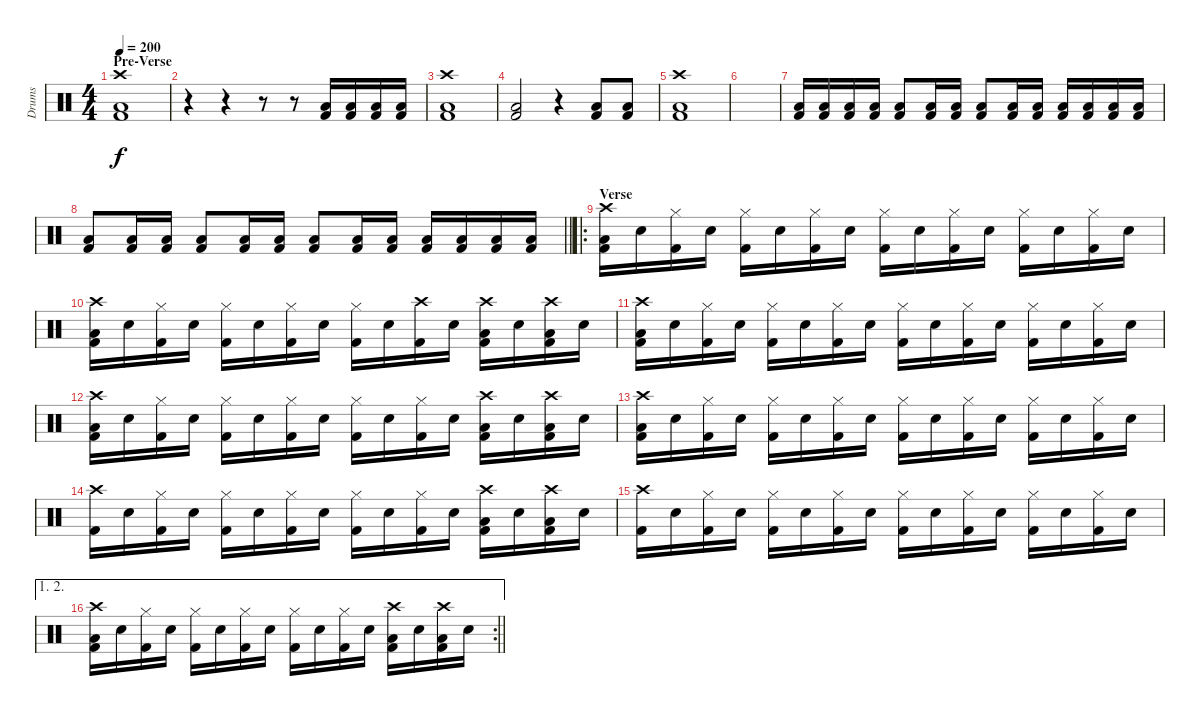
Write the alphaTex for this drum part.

\track ("Drums" "Drums") {instrument percussion}
\staff {score}
\articulation defaults
\ts (4 4)
\section ("" "Pre-Verse")
\tempo 200
\clef neutral
\ks c
("Crash high (hit)" "Low Floor Tom (hit)" "Kick (hit) 2").1{dy f} |
r.4 r.4 r.8 r.8 ("Low Floor Tom (hit)" "Kick (hit) 2").16 ("Low Floor Tom (hit)" "Kick (hit) 2").16 ("Low Floor Tom (hit)" "Kick (hit) 2").16 ("Low Floor Tom (hit)" "Kick (hit) 2").16 |
("Crash high (hit)" "Low Floor Tom (hit)" "Kick (hit) 2").1 |
("Low Floor Tom (hit)" "Kick (hit) 2").2 r.4 ("Low Floor Tom (hit)" "Kick (hit) 2").8 ("Low Floor Tom (hit)" "Kick (hit) 2").8 |
("Crash high (hit)" "Low Floor Tom (hit)" "Kick (hit) 2").1 |
|
("Low Floor Tom (hit)" "Kick (hit) 2").16 ("Low Floor Tom (hit)" "Kick (hit) 2").16 ("Low Floor Tom (hit)" "Kick (hit) 2").16 ("Low Floor Tom (hit)" "Kick (hit) 2").16 ("Low Floor Tom (hit)" "Kick (hit) 2").8 ("Low Floor Tom (hit)" "Kick (hit) 2").16 ("Low Floor Tom (hit)" "Kick (hit) 2").16 ("Low Floor Tom (hit)" "Kick (hit) 2").8 ("Low Floor Tom (hit)" "Kick (hit) 2").16 ("Low Floor Tom (hit)" "Kick (hit) 2").16 ("Low Floor Tom (hit)" "Kick (hit) 2").16 ("Low Floor Tom (hit)" "Kick (hit) 2").16 ("Low Floor Tom (hit)" "Kick (hit) 2").16 ("Low Floor Tom (hit)" "Kick (hit) 2").16 |
\barLineRight lightlight
("Low Floor Tom (hit)" "Kick (hit) 2").8 ("Low Floor Tom (hit)" "Kick (hit) 2").16 ("Low Floor Tom (hit)" "Kick (hit) 2").16 ("Low Floor Tom (hit)" "Kick (hit) 2").8 ("Low Floor Tom (hit)" "Kick (hit) 2").16 ("Low Floor Tom (hit)" "Kick (hit) 2").16 ("Low Floor Tom (hit)" "Kick (hit) 2").8 ("Low Floor Tom (hit)" "Kick (hit) 2").16 ("Low Floor Tom (hit)" "Kick (hit) 2").16 ("Low Floor Tom (hit)" "Kick (hit) 2").16 ("Low Floor Tom (hit)" "Kick (hit) 2").16 ("Low Floor Tom (hit)" "Kick (hit) 2").16 ("Low Floor Tom (hit)" "Kick (hit) 2").16 |
\ro
\section ("" "Verse")
("Crash high (hit)" "Low Floor Tom (hit)" "Kick (hit) 2").16 "Snare (hit) 2".16 ("Hi-Hat (closed)" "Kick (hit) 2").16 "Snare (hit) 2".16 ("Hi-Hat (closed)" "Kick (hit) 2").16 "Snare (hit) 2".16 ("Hi-Hat (closed)" "Kick (hit) 2").16 "Snare (hit) 2".16 ("Hi-Hat (closed)" "Kick (hit) 2").16 "Snare (hit) 2".16 ("Hi-Hat (closed)" "Kick (hit) 2").16 "Snare (hit) 2".16 ("Hi-Hat (closed)" "Kick (hit) 2").16 "Snare (hit) 2".16 ("Hi-Hat (closed)" "Kick (hit) 2").16 "Snare (hit) 2".16 |
("Crash high (hit)" "Low Floor Tom (hit)" "Kick (hit) 2").16 "Snare (hit) 2".16 ("Hi-Hat (closed)" "Kick (hit) 2").16 "Snare (hit) 2".16 ("Hi-Hat (closed)" "Kick (hit) 2").16 "Snare (hit) 2".16 ("Hi-Hat (closed)" "Kick (hit) 2").16 "Snare (hit) 2".16 ("Hi-Hat (closed)" "Kick (hit) 2").16 "Snare (hit) 2".16 ("Crash high (hit)" "Kick (hit) 2").16 "Snare (hit) 2".16 ("Crash high (hit)" "Low Floor Tom (hit)" "Kick (hit) 2").16 "Snare (hit) 2".16 ("Crash high (hit)" "Low Floor Tom (hit)" "Kick (hit) 2").16 "Snare (hit) 2".16 |
("Crash high (hit)" "Low Floor Tom (hit)" "Kick (hit) 2").16 "Snare (hit) 2".16 ("Hi-Hat (closed)" "Kick (hit) 2").16 "Snare (hit) 2".16 ("Hi-Hat (closed)" "Kick (hit) 2").16 "Snare (hit) 2".16 ("Hi-Hat (closed)" "Kick (hit) 2").16 "Snare (hit) 2".16 ("Hi-Hat (closed)" "Kick (hit) 2").16 "Snare (hit) 2".16 ("Hi-Hat (closed)" "Kick (hit) 2").16 "Snare (hit) 2".16 ("Hi-Hat (closed)" "Kick (hit) 2").16 "Snare (hit) 2".16 ("Hi-Hat (closed)" "Kick (hit) 2").16 "Snare (hit) 2".16 |
("Crash high (hit)" "Low Floor Tom (hit)" "Kick (hit) 2").16 "Snare (hit) 2".16 ("Hi-Hat (closed)" "Kick (hit) 2").16 "Snare (hit) 2".16 ("Hi-Hat (closed)" "Kick (hit) 2").16 "Snare (hit) 2".16 ("Hi-Hat (closed)" "Kick (hit) 2").16 "Snare (hit) 2".16 ("Hi-Hat (closed)" "Kick (hit) 2").16 "Snare (hit) 2".16 ("Hi-Hat (closed)" "Kick (hit) 2").16 "Snare (hit) 2".16 ("Crash high (hit)" "Low Floor Tom (hit)" "Kick (hit) 2").16 "Snare (hit) 2".16 ("Crash high (hit)" "Low Floor Tom (hit)" "Kick (hit) 2").16 "Snare (hit) 2".16 |
("Crash high (hit)" "Low Floor Tom (hit)" "Kick (hit) 2").16 "Snare (hit) 2".16 ("Hi-Hat (closed)" "Kick (hit) 2").16 "Snare (hit) 2".16 ("Hi-Hat (closed)" "Kick (hit) 2").16 "Snare (hit) 2".16 ("Hi-Hat (closed)" "Kick (hit) 2").16 "Snare (hit) 2".16 ("Hi-Hat (closed)" "Kick (hit) 2").16 "Snare (hit) 2".16 ("Hi-Hat (closed)" "Kick (hit) 2").16 "Snare (hit) 2".16 ("Hi-Hat (closed)" "Kick (hit) 2").16 "Snare (hit) 2".16 ("Hi-Hat (closed)" "Kick (hit) 2").16 "Snare (hit) 2".16 |
("Crash high (hit)" "Kick (hit) 2").16 "Snare (hit) 2".16 ("Hi-Hat (closed)" "Kick (hit) 2").16 "Snare (hit) 2".16 ("Hi-Hat (closed)" "Kick (hit) 2").16 "Snare (hit) 2".16 ("Hi-Hat (closed)" "Kick (hit) 2").16 "Snare (hit) 2".16 ("Hi-Hat (closed)" "Kick (hit) 2").16 "Snare (hit) 2".16 ("Hi-Hat (closed)" "Kick (hit) 2").16 "Snare (hit) 2".16 ("Crash high (hit)" "Low Floor Tom (hit)" "Kick (hit) 2").16 "Snare (hit) 2".16 ("Crash high (hit)" "Low Floor Tom (hit)" "Kick (hit) 2").16 "Snare (hit) 2".16 |
("Crash high (hit)" "Kick (hit) 2").16 "Snare (hit) 2".16 ("Hi-Hat (closed)" "Kick (hit) 2").16 "Snare (hit) 2".16 ("Hi-Hat (closed)" "Kick (hit) 2").16 "Snare (hit) 2".16 ("Hi-Hat (closed)" "Kick (hit) 2").16 "Snare (hit) 2".16 ("Hi-Hat (closed)" "Kick (hit) 2").16 "Snare (hit) 2".16 ("Hi-Hat (closed)" "Kick (hit) 2").16 "Snare (hit) 2".16 ("Hi-Hat (closed)" "Kick (hit) 2").16 "Snare (hit) 2".16 ("Hi-Hat (closed)" "Kick (hit) 2").16 "Snare (hit) 2".16 |
\ae (1 2)
\rc 2
\barLineRight lightlight
("Crash high (hit)" "Low Floor Tom (hit)" "Kick (hit) 2").16 "Snare (hit) 2".16 ("Hi-Hat (closed)" "Kick (hit) 2").16 "Snare (hit) 2".16 ("Hi-Hat (closed)" "Kick (hit) 2").16 "Snare (hit) 2".16 ("Hi-Hat (closed)" "Kick (hit) 2").16 "Snare (hit) 2".16 ("Hi-Hat (closed)" "Kick (hit) 2").16 "Snare (hit) 2".16 ("Hi-Hat (closed)" "Kick (hit) 2").16 "Snare (hit) 2".16 ("Crash high (hit)" "Low Floor Tom (hit)" "Kick (hit) 2").16 "Snare (hit) 2".16 ("Crash high (hit)" "Low Floor Tom (hit)" "Kick (hit) 2").16 "Snare (hit) 2".16
